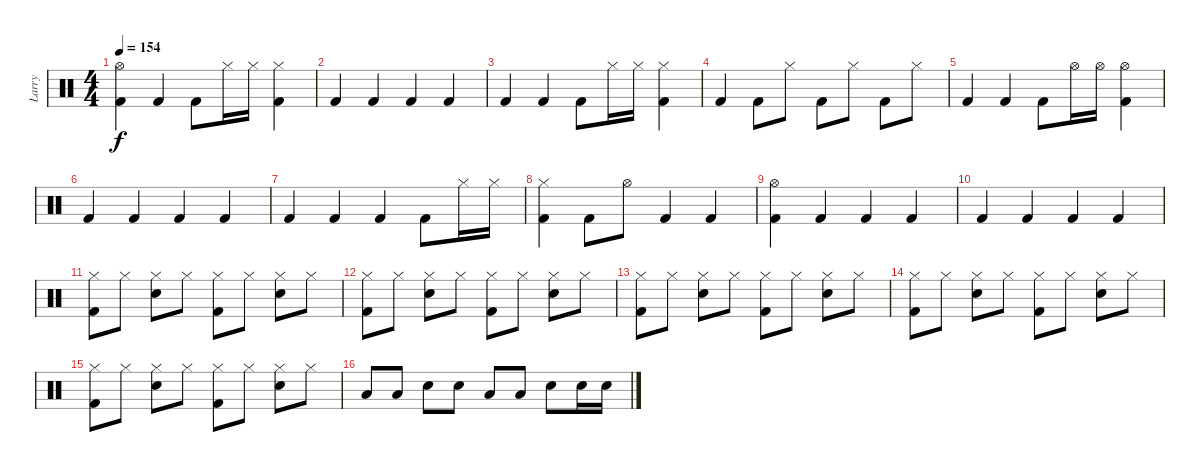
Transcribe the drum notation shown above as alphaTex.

\track ("Larry " "Larry ") {instrument percussion}
\staff {score}
\articulation defaults
\ts (4 4)
\tempo 154
\clef neutral
\ks c
("Hi-Hat (open)" "Kick (hit) 2").4{dy f} "Kick (hit) 2".4 "Kick (hit) 2".8 "Hi-Hat (closed)".16 "Hi-Hat (closed)".16 ("Hi-Hat (closed)" "Kick (hit) 2").4 |
"Kick (hit) 2".4 "Kick (hit) 2".4 "Kick (hit) 2".4 "Kick (hit) 2".4 |
"Kick (hit) 2".4 "Kick (hit) 2".4 "Kick (hit) 2".8 "Hi-Hat (closed)".16 "Hi-Hat (closed)".16 ("Hi-Hat (closed)" "Kick (hit) 2").4 |
"Kick (hit) 2".4 "Kick (hit) 2".8 "Hi-Hat (closed)".8 "Kick (hit) 2".8 "Hi-Hat (closed)".8 "Kick (hit) 2".8 "Hi-Hat (closed)".8 |
"Kick (hit) 2".4 "Kick (hit) 2".4 "Kick (hit) 2".8 "Hi-Hat (open)".16 "Hi-Hat (open)".16 ("Hi-Hat (open)" "Kick (hit) 2").4 |
"Kick (hit) 2".4 "Kick (hit) 2".4 "Kick (hit) 2".4 "Kick (hit) 2".4 |
"Kick (hit) 2".4 "Kick (hit) 2".4 "Kick (hit) 2".4 "Kick (hit) 2".8 "Hi-Hat (closed)".16 "Hi-Hat (closed)".16 |
("Hi-Hat (closed)" "Kick (hit) 2").4 "Kick (hit) 2".8 "Hi-Hat (open)".8 "Kick (hit) 2".4 "Kick (hit) 2".4 |
("Hi-Hat (open)" "Kick (hit) 2").4 "Kick (hit) 2".4 "Kick (hit) 2".4 "Kick (hit) 2".4 |
"Kick (hit) 2".4 "Kick (hit) 2".4 "Kick (hit) 2".4 "Kick (hit) 2".4 |
("Hi-Hat (closed)" "Kick (hit) 2").8 "Hi-Hat (closed)".8 ("Hi-Hat (closed)" "Snare (hit) 2").8 "Hi-Hat (closed)".8 ("Hi-Hat (closed)" "Kick (hit) 2").8 "Hi-Hat (closed)".8 ("Hi-Hat (closed)" "Snare (hit) 2").8 "Hi-Hat (closed)".8 |
("Hi-Hat (closed)" "Kick (hit) 2").8 "Hi-Hat (closed)".8 ("Hi-Hat (closed)" "Snare (hit) 2").8 "Hi-Hat (closed)".8 ("Hi-Hat (closed)" "Kick (hit) 2").8 "Hi-Hat (closed)".8 ("Hi-Hat (closed)" "Snare (hit) 2").8 "Hi-Hat (closed)".8 |
("Hi-Hat (closed)" "Kick (hit) 2").8 "Hi-Hat (closed)".8 ("Hi-Hat (closed)" "Snare (hit) 2").8 "Hi-Hat (closed)".8 ("Hi-Hat (closed)" "Kick (hit) 2").8 "Hi-Hat (closed)".8 ("Hi-Hat (closed)" "Snare (hit) 2").8 "Hi-Hat (closed)".8 |
("Hi-Hat (closed)" "Kick (hit) 2").8 "Hi-Hat (closed)".8 ("Hi-Hat (closed)" "Snare (hit) 2").8 "Hi-Hat (closed)".8 ("Hi-Hat (closed)" "Kick (hit) 2").8 "Hi-Hat (closed)".8 ("Hi-Hat (closed)" "Snare (hit) 2").8 "Hi-Hat (closed)".8 |
("Hi-Hat (closed)" "Kick (hit) 2").8 "Hi-Hat (closed)".8 ("Hi-Hat (closed)" "Snare (hit) 2").8 "Hi-Hat (closed)".8 ("Hi-Hat (closed)" "Kick (hit) 2").8 "Hi-Hat (closed)".8 ("Hi-Hat (closed)" "Snare (hit) 2").8 "Hi-Hat (closed)".8 |
"Low Tom (hit)".8 "Low Tom (hit)".8 "Snare (hit) 2".8 "Snare (hit) 2".8 "Low Tom (hit)".8 "Low Tom (hit)".8 "Snare (hit) 2".8 "Snare (hit) 2".16 "Snare (hit) 2".16
